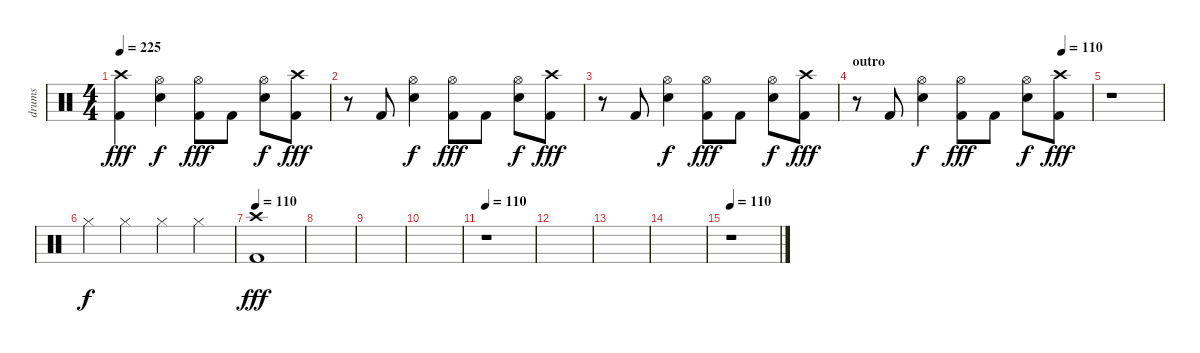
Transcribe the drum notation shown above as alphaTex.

\track ("drums" "drums") {instrument percussion}
\staff {score}
\articulation defaults
\ts (4 4)
\tempo 225
\clef neutral
\ks c
("Crash high (hit)" "Kick (hit) 2").4{dy fff} ("Hi-Hat (open)" "Snare (hit) 2").4{dy f} ("Hi-Hat (open)" "Kick (hit) 2").8{dy fff} "Kick (hit) 2".8 ("Hi-Hat (open)" "Snare (hit) 2").8{dy f} ("Crash high (hit)" "Kick (hit) 2").8{dy fff} |
r.8 "Kick (hit) 2".8 ("Hi-Hat (open)" "Snare (hit) 2").4{dy f} ("Hi-Hat (open)" "Kick (hit) 2").8{dy fff} "Kick (hit) 2".8 ("Hi-Hat (open)" "Snare (hit) 2").8{dy f} ("Crash high (hit)" "Kick (hit) 2").8{dy fff} |
r.8 "Kick (hit) 2".8 ("Hi-Hat (open)" "Snare (hit) 2").4{dy f} ("Hi-Hat (open)" "Kick (hit) 2").8{dy fff} "Kick (hit) 2".8 ("Hi-Hat (open)" "Snare (hit) 2").8{dy f} ("Crash high (hit)" "Kick (hit) 2").8{dy fff} |
\section ("" "outro")
\tempo (110 0.875)
r.8 "Kick (hit) 2".8 ("Hi-Hat (open)" "Snare (hit) 2").4{dy f} ("Hi-Hat (open)" "Kick (hit) 2").8{dy fff} "Kick (hit) 2".8 ("Hi-Hat (open)" "Snare (hit) 2").8{dy f} ("Crash high (hit)" "Kick (hit) 2").8{dy fff} |
r.1 |
"Hi-Hat (closed)".4{dy f} "Hi-Hat (closed)".4 "Hi-Hat (closed)".4 "Hi-Hat (closed)".4 |
\tempo 110
("Crash high (hit)" "Kick (hit) 2").1{dy fff} |
|
|
|
\tempo 110
r.1 |
|
|
|
\tempo 110
r.1
